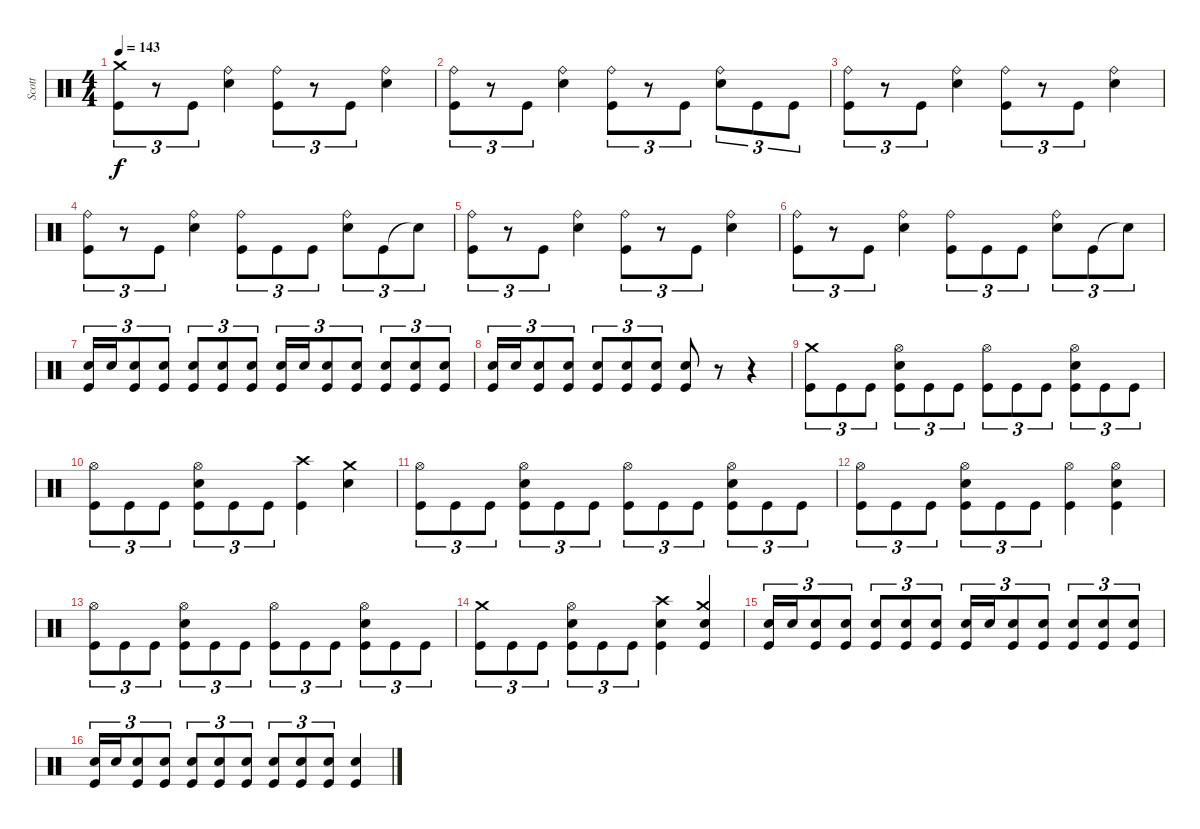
\track ("Scott" "Scott") {instrument percussion}
\staff {score}
\articulation defaults
\ts (4 4)
\tempo 143
\clef neutral
\ks c
("Kick (hit)" "Crash medium (hit)").8{tu (3 2) dy f} r.8{tu (3 2)} "Kick (hit)".8{tu (3 2)} ("Snare (hit) 2" "Ride (bell)").4 ("Kick (hit)" "Ride (bell)").8{tu (3 2)} r.8{tu (3 2)} "Kick (hit)".8{tu (3 2)} ("Snare (hit) 2" "Ride (bell)").4 |
("Kick (hit)" "Ride (bell)").8{tu (3 2)} r.8{tu (3 2)} "Kick (hit)".8{tu (3 2)} ("Snare (hit) 2" "Ride (bell)").4 ("Kick (hit)" "Ride (bell)").8{tu (3 2)} r.8{tu (3 2)} "Kick (hit)".8{tu (3 2)} ("Snare (hit) 2" "Ride (bell)").8{tu (3 2)} "Kick (hit)".8{tu (3 2)} "Kick (hit)".8{tu (3 2)} |
("Kick (hit)" "Ride (bell)").8{tu (3 2)} r.8{tu (3 2)} "Kick (hit)".8{tu (3 2)} ("Snare (hit) 2" "Ride (bell)").4 ("Kick (hit)" "Ride (bell)").8{tu (3 2)} r.8{tu (3 2)} "Kick (hit)".8{tu (3 2)} ("Snare (hit) 2" "Ride (bell)").4 |
("Kick (hit)" "Ride (bell)").8{tu (3 2)} r.8{tu (3 2)} "Kick (hit)".8{tu (3 2)} ("Snare (hit) 2" "Ride (bell)").4 ("Kick (hit)" "Ride (bell)").8{tu (3 2)} "Kick (hit)".8{tu (3 2)} "Kick (hit)".8{tu (3 2)} ("Snare (hit) 2" "Ride (bell)").8{tu (3 2)} "Kick (hit)".8{tu (3 2)} "Snare (hit)"{t}.8{tu (3 2)} |
("Kick (hit)" "Ride (bell)").8{tu (3 2)} r.8{tu (3 2)} "Kick (hit)".8{tu (3 2)} ("Snare (hit) 2" "Ride (bell)").4 ("Kick (hit)" "Ride (bell)").8{tu (3 2)} r.8{tu (3 2)} "Kick (hit)".8{tu (3 2)} ("Snare (hit) 2" "Ride (bell)").4 |
("Kick (hit)" "Ride (bell)").8{tu (3 2)} r.8{tu (3 2)} "Kick (hit)".8{tu (3 2)} ("Snare (hit) 2" "Ride (bell)").4 ("Kick (hit)" "Ride (bell)").8{tu (3 2)} "Kick (hit)".8{tu (3 2)} "Kick (hit)".8{tu (3 2)} ("Snare (hit) 2" "Ride (bell)").8{tu (3 2)} "Kick (hit)".8{tu (3 2)} "Snare (hit)"{t}.8{tu (3 2)} |
("Kick (hit)" "Snare (hit) 2").16{tu (3 2)} "Snare (hit) 2".16{tu (3 2)} ("Kick (hit)" "Snare (hit) 2").8{tu (3 2)} ("Kick (hit)" "Snare (hit) 2").8{tu (3 2)} ("Kick (hit)" "Snare (hit) 2").8{tu (3 2)} ("Kick (hit)" "Snare (hit) 2").8{tu (3 2)} ("Kick (hit)" "Snare (hit) 2").8{tu (3 2)} ("Kick (hit)" "Snare (hit) 2").16{tu (3 2)} "Snare (hit) 2".16{tu (3 2)} ("Kick (hit)" "Snare (hit) 2").8{tu (3 2)} ("Kick (hit)" "Snare (hit) 2").8{tu (3 2)} ("Kick (hit)" "Snare (hit) 2").8{tu (3 2)} ("Kick (hit)" "Snare (hit) 2").8{tu (3 2)} ("Kick (hit)" "Snare (hit) 2").8{tu (3 2)} |
("Kick (hit)" "Snare (hit) 2").16{tu (3 2)} "Snare (hit) 2".16{tu (3 2)} ("Kick (hit)" "Snare (hit) 2").8{tu (3 2)} ("Kick (hit)" "Snare (hit) 2").8{tu (3 2)} ("Kick (hit)" "Snare (hit) 2").8{tu (3 2)} ("Kick (hit)" "Snare (hit) 2").8{tu (3 2)} ("Kick (hit)" "Snare (hit) 2").8{tu (3 2)} ("Kick (hit)" "Snare (hit) 2").8 r.8 r.4 |
("Kick (hit)" "Crash medium (hit)").8{tu (3 2)} "Kick (hit)".8{tu (3 2)} "Kick (hit)".8{tu (3 2)} ("Kick (hit)" "Snare (hit) 2" "Hi-Hat (open)").8{tu (3 2)} "Kick (hit)".8{tu (3 2)} "Kick (hit)".8{tu (3 2)} ("Kick (hit)" "Hi-Hat (open)").8{tu (3 2)} "Kick (hit)".8{tu (3 2)} "Kick (hit)".8{tu (3 2)} ("Kick (hit)" "Snare (hit) 2" "Hi-Hat (open)").8{tu (3 2)} "Kick (hit)".8{tu (3 2)} "Kick (hit)".8{tu (3 2)} |
("Kick (hit)" "Hi-Hat (open)").8{tu (3 2)} "Kick (hit)".8{tu (3 2)} "Kick (hit)".8{tu (3 2)} ("Kick (hit)" "Snare (hit) 2" "Hi-Hat (open)").8{tu (3 2)} "Kick (hit)".8{tu (3 2)} "Kick (hit)".8{tu (3 2)} ("Kick (hit)" "Crash high (hit)").4 ("Snare (hit) 2" "Crash medium (hit)").4 |
("Kick (hit)" "Hi-Hat (open)").8{tu (3 2)} "Kick (hit)".8{tu (3 2)} "Kick (hit)".8{tu (3 2)} ("Kick (hit)" "Snare (hit) 2" "Hi-Hat (open)").8{tu (3 2)} "Kick (hit)".8{tu (3 2)} "Kick (hit)".8{tu (3 2)} ("Kick (hit)" "Hi-Hat (open)").8{tu (3 2)} "Kick (hit)".8{tu (3 2)} "Kick (hit)".8{tu (3 2)} ("Kick (hit)" "Snare (hit) 2" "Hi-Hat (open)").8{tu (3 2)} "Kick (hit)".8{tu (3 2)} "Kick (hit)".8{tu (3 2)} |
("Kick (hit)" "Hi-Hat (open)").8{tu (3 2)} "Kick (hit)".8{tu (3 2)} "Kick (hit)".8{tu (3 2)} ("Kick (hit)" "Snare (hit) 2" "Hi-Hat (open)").8{tu (3 2)} "Kick (hit)".8{tu (3 2)} "Kick (hit)".8{tu (3 2)} ("Kick (hit)" "Hi-Hat (open)").4 ("Kick (hit)" "Snare (hit) 2" "Hi-Hat (open)").4 |
("Kick (hit)" "Hi-Hat (open)").8{tu (3 2)} "Kick (hit)".8{tu (3 2)} "Kick (hit)".8{tu (3 2)} ("Kick (hit)" "Snare (hit) 2" "Hi-Hat (open)").8{tu (3 2)} "Kick (hit)".8{tu (3 2)} "Kick (hit)".8{tu (3 2)} ("Kick (hit)" "Hi-Hat (open)").8{tu (3 2)} "Kick (hit)".8{tu (3 2)} "Kick (hit)".8{tu (3 2)} ("Kick (hit)" "Snare (hit) 2" "Hi-Hat (open)").8{tu (3 2)} "Kick (hit)".8{tu (3 2)} "Kick (hit)".8{tu (3 2)} |
("Kick (hit)" "Crash medium (hit)").8{tu (3 2)} "Kick (hit)".8{tu (3 2)} "Kick (hit)".8{tu (3 2)} ("Kick (hit)" "Snare (hit) 2" "Hi-Hat (open)").8{tu (3 2)} "Kick (hit)".8{tu (3 2)} "Kick (hit)".8{tu (3 2)} ("Kick (hit)" "Snare (hit) 2" "Crash high (hit)").4 ("Kick (hit)" "Snare (hit) 2" "Crash medium (hit)").4 |
("Kick (hit)" "Snare (hit) 2").16{tu (3 2)} "Snare (hit) 2".16{tu (3 2)} ("Kick (hit)" "Snare (hit) 2").8{tu (3 2)} ("Kick (hit)" "Snare (hit) 2").8{tu (3 2)} ("Kick (hit)" "Snare (hit) 2").8{tu (3 2)} ("Kick (hit)" "Snare (hit) 2").8{tu (3 2)} ("Kick (hit)" "Snare (hit) 2").8{tu (3 2)} ("Kick (hit)" "Snare (hit) 2").16{tu (3 2)} "Snare (hit) 2".16{tu (3 2)} ("Kick (hit)" "Snare (hit) 2").8{tu (3 2)} ("Kick (hit)" "Snare (hit) 2").8{tu (3 2)} ("Kick (hit)" "Snare (hit) 2").8{tu (3 2)} ("Kick (hit)" "Snare (hit) 2").8{tu (3 2)} ("Kick (hit)" "Snare (hit) 2").8{tu (3 2)} |
("Kick (hit)" "Snare (hit) 2").16{tu (3 2)} "Snare (hit) 2".16{tu (3 2)} ("Kick (hit)" "Snare (hit) 2").8{tu (3 2)} ("Kick (hit)" "Snare (hit) 2").8{tu (3 2)} ("Kick (hit)" "Snare (hit) 2").8{tu (3 2)} ("Kick (hit)" "Snare (hit) 2").8{tu (3 2)} ("Kick (hit)" "Snare (hit) 2").8{tu (3 2)} ("Kick (hit)" "Snare (hit) 2").8{tu (3 2)} ("Kick (hit)" "Snare (hit) 2").8{tu (3 2)} ("Kick (hit)" "Snare (hit) 2").8{tu (3 2)} ("Kick (hit)" "Snare (hit) 2").4
